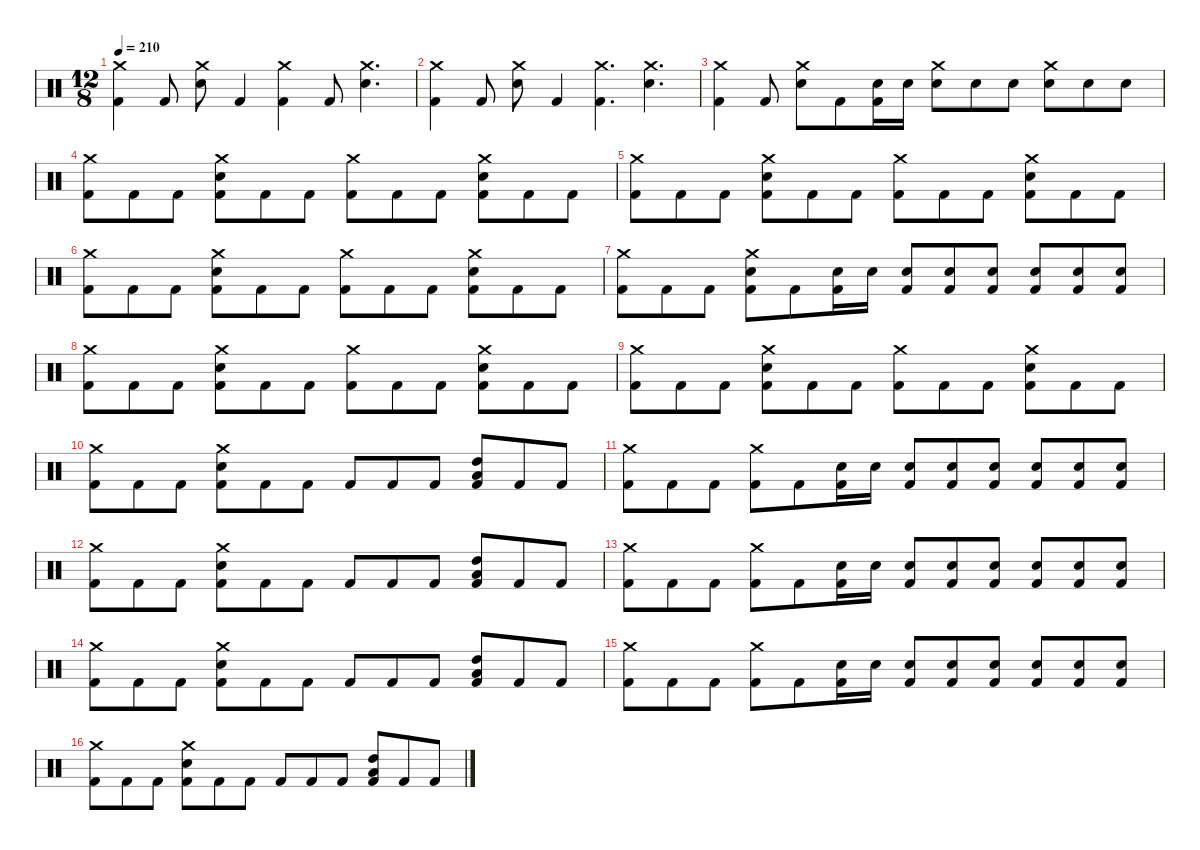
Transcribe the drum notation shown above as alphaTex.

\defaultSystemsLayout 4
\hideDynamics
\bracketExtendMode nobrackets
\singleTrackTrackNamePolicy hidden
\multiTrackTrackNamePolicy hidden
\firstSystemTrackNameMode fullname
\firstSystemTrackNameOrientation horizontal
\otherSystemsTrackNameOrientation horizontal
\track ("Beats" "drm.") {instrument percussion}
\staff {score}
\articulation defaults
\ts (12 8)
\tempo 210
\clef neutral
\ks c
("Crash medium (hit)" "Kick (hit) 2").4{dy f} "Kick (hit) 2".8 ("Crash medium (hit)" "Snare (hit) 2").8 "Kick (hit) 2".4 ("Crash medium (hit)" "Kick (hit) 2").4 "Kick (hit) 2".8 ("Crash medium (hit)" "Snare (hit) 2").4{d} |
("Crash medium (hit)" "Kick (hit) 2").4 "Kick (hit) 2".8 ("Crash medium (hit)" "Snare (hit) 2").8 "Kick (hit) 2".4 ("Crash medium (hit)" "Kick (hit) 2").4{d} ("Crash medium (hit)" "Snare (hit) 2").4{d} |
("Crash medium (hit)" "Kick (hit) 2").4 "Kick (hit) 2".8 ("Crash medium (hit)" "Snare (hit) 2").8 "Kick (hit) 2".8 ("Snare (hit) 2" "Kick (hit) 2").16 "Snare (hit) 2".16 ("Crash medium (hit)" "Snare (hit) 2").8 "Snare (hit) 2".8 "Snare (hit) 2".8 ("Crash medium (hit)" "Snare (hit) 2").8 "Snare (hit) 2".8 "Snare (hit) 2".8 |
("Crash medium (hit)" "Kick (hit) 2").8{dy fff} "Kick (hit) 2".8{dy f} "Kick (hit) 2".8 ("Crash medium (hit)" "Snare (hit) 2" "Kick (hit) 2").8 "Kick (hit) 2".8 "Kick (hit) 2".8 ("Crash medium (hit)" "Kick (hit) 2").8 "Kick (hit) 2".8 "Kick (hit) 2".8 ("Crash medium (hit)" "Snare (hit) 2" "Kick (hit) 2").8 "Kick (hit) 2".8 "Kick (hit) 2".8 |
("Crash medium (hit)" "Kick (hit) 2").8{dy fff} "Kick (hit) 2".8{dy f} "Kick (hit) 2".8 ("Crash medium (hit)" "Snare (hit) 2" "Kick (hit) 2").8 "Kick (hit) 2".8 "Kick (hit) 2".8 ("Crash medium (hit)" "Kick (hit) 2").8 "Kick (hit) 2".8 "Kick (hit) 2".8 ("Crash medium (hit)" "Snare (hit) 2" "Kick (hit) 2").8 "Kick (hit) 2".8 "Kick (hit) 2".8 |
("Crash medium (hit)" "Kick (hit) 2").8{dy fff} "Kick (hit) 2".8{dy f} "Kick (hit) 2".8 ("Crash medium (hit)" "Snare (hit) 2" "Kick (hit) 2").8 "Kick (hit) 2".8 "Kick (hit) 2".8 ("Crash medium (hit)" "Kick (hit) 2").8 "Kick (hit) 2".8 "Kick (hit) 2".8 ("Crash medium (hit)" "Snare (hit) 2" "Kick (hit) 2").8 "Kick (hit) 2".8 "Kick (hit) 2".8 |
("Crash medium (hit)" "Kick (hit) 2").8 "Kick (hit) 2".8 "Kick (hit) 2".8 ("Crash medium (hit)" "Snare (hit) 2" "Kick (hit) 2").8 "Kick (hit) 2".8 ("Snare (hit) 2" "Kick (hit) 2").16 "Snare (hit) 2".16 ("Snare (hit) 2" "Kick (hit) 2").8{dy fff} ("Snare (hit) 2" "Kick (hit) 2").8{dy f} ("Snare (hit) 2" "Kick (hit) 2").8 ("Snare (hit) 2" "Kick (hit) 2").8{dy fff} ("Snare (hit) 2" "Kick (hit) 2").8{dy f} ("Snare (hit) 2" "Kick (hit) 2").8 |
("Crash medium (hit)" "Kick (hit) 2").8{dy fff} "Kick (hit) 2".8{dy f} "Kick (hit) 2".8 ("Crash medium (hit)" "Snare (hit) 2" "Kick (hit) 2").8 "Kick (hit) 2".8 "Kick (hit) 2".8 ("Crash medium (hit)" "Kick (hit) 2").8 "Kick (hit) 2".8 "Kick (hit) 2".8 ("Crash medium (hit)" "Snare (hit) 2" "Kick (hit) 2").8 "Kick (hit) 2".8 "Kick (hit) 2".8 |
("Crash medium (hit)" "Kick (hit) 2").8{dy fff} "Kick (hit) 2".8{dy f} "Kick (hit) 2".8 ("Crash medium (hit)" "Snare (hit) 2" "Kick (hit) 2").8 "Kick (hit) 2".8 "Kick (hit) 2".8 ("Crash medium (hit)" "Kick (hit) 2").8 "Kick (hit) 2".8 "Kick (hit) 2".8 ("Crash medium (hit)" "Snare (hit) 2" "Kick (hit) 2").8 "Kick (hit) 2".8 "Kick (hit) 2".8 |
("Crash medium (hit)" "Kick (hit) 2").8{dy fff} "Kick (hit) 2".8{dy f} "Kick (hit) 2".8 ("Crash medium (hit)" "Snare (hit) 2" "Kick (hit) 2").8 "Kick (hit) 2".8 "Kick (hit) 2".8 "Kick (hit) 2".8 "Kick (hit) 2".8 "Kick (hit) 2".8 ("High Tom (hit)" "Low Tom (hit)" "Kick (hit) 2").8{dy fff} "Kick (hit) 2".8{dy f} "Kick (hit) 2".8 |
("Crash medium (hit)" "Kick (hit) 2").8 "Kick (hit) 2".8 "Kick (hit) 2".8 ("Crash medium (hit)" "Kick (hit) 2").8 "Kick (hit) 2".8 ("Snare (hit) 2" "Kick (hit) 2").16 "Snare (hit) 2".16 ("Snare (hit) 2" "Kick (hit) 2").8{dy fff} ("Snare (hit) 2" "Kick (hit) 2").8{dy f} ("Snare (hit) 2" "Kick (hit) 2").8 ("Snare (hit) 2" "Kick (hit) 2").8{dy fff} ("Snare (hit) 2" "Kick (hit) 2").8{dy f} ("Snare (hit) 2" "Kick (hit) 2").8 |
("Crash medium (hit)" "Kick (hit) 2").8{dy fff} "Kick (hit) 2".8{dy f} "Kick (hit) 2".8 ("Crash medium (hit)" "Snare (hit) 2" "Kick (hit) 2").8 "Kick (hit) 2".8 "Kick (hit) 2".8 "Kick (hit) 2".8 "Kick (hit) 2".8 "Kick (hit) 2".8 ("High Tom (hit)" "Low Tom (hit)" "Kick (hit) 2").8{dy fff} "Kick (hit) 2".8{dy f} "Kick (hit) 2".8 |
("Crash medium (hit)" "Kick (hit) 2").8 "Kick (hit) 2".8 "Kick (hit) 2".8 ("Crash medium (hit)" "Kick (hit) 2").8 "Kick (hit) 2".8 ("Snare (hit) 2" "Kick (hit) 2").16 "Snare (hit) 2".16 ("Snare (hit) 2" "Kick (hit) 2").8{dy fff} ("Snare (hit) 2" "Kick (hit) 2").8{dy f} ("Snare (hit) 2" "Kick (hit) 2").8 ("Snare (hit) 2" "Kick (hit) 2").8{dy fff} ("Snare (hit) 2" "Kick (hit) 2").8{dy f} ("Snare (hit) 2" "Kick (hit) 2").8 |
("Crash medium (hit)" "Kick (hit) 2").8{dy fff} "Kick (hit) 2".8{dy f} "Kick (hit) 2".8 ("Crash medium (hit)" "Snare (hit) 2" "Kick (hit) 2").8 "Kick (hit) 2".8 "Kick (hit) 2".8 "Kick (hit) 2".8 "Kick (hit) 2".8 "Kick (hit) 2".8 ("High Tom (hit)" "Low Tom (hit)" "Kick (hit) 2").8{dy fff} "Kick (hit) 2".8{dy f} "Kick (hit) 2".8 |
("Crash medium (hit)" "Kick (hit) 2").8 "Kick (hit) 2".8 "Kick (hit) 2".8 ("Crash medium (hit)" "Kick (hit) 2").8 "Kick (hit) 2".8 ("Snare (hit) 2" "Kick (hit) 2").16 "Snare (hit) 2".16 ("Snare (hit) 2" "Kick (hit) 2").8{dy fff} ("Snare (hit) 2" "Kick (hit) 2").8{dy f} ("Snare (hit) 2" "Kick (hit) 2").8 ("Snare (hit) 2" "Kick (hit) 2").8{dy fff} ("Snare (hit) 2" "Kick (hit) 2").8{dy f} ("Snare (hit) 2" "Kick (hit) 2").8 |
("Crash medium (hit)" "Kick (hit) 2").8{dy fff} "Kick (hit) 2".8{dy f} "Kick (hit) 2".8 ("Crash medium (hit)" "Snare (hit) 2" "Kick (hit) 2").8 "Kick (hit) 2".8 "Kick (hit) 2".8 "Kick (hit) 2".8 "Kick (hit) 2".8 "Kick (hit) 2".8 ("High Tom (hit)" "Low Tom (hit)" "Kick (hit) 2").8{dy fff} "Kick (hit) 2".8{dy f} "Kick (hit) 2".8
